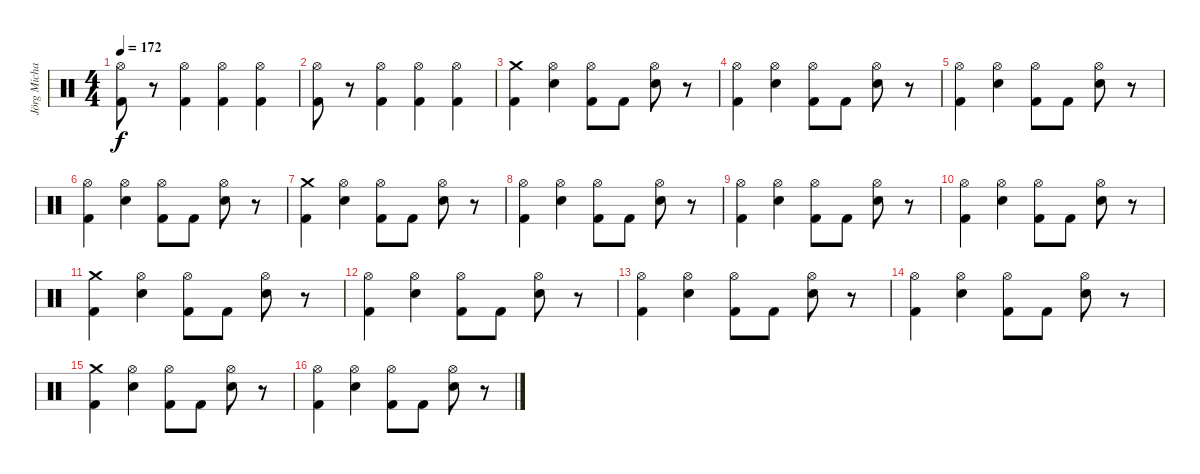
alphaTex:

\track ("Jörg Michael" "Jörg Micha") {instrument percussion}
\staff {score}
\articulation defaults
\ts (4 4)
\tempo 172
\clef neutral
\ks c
("Hi-Hat (open)" "Kick (hit) 2").8{dy f} r.8 ("Kick (hit) 2" "Hi-Hat (open)").4 ("Hi-Hat (open)" "Kick (hit) 2").4 ("Kick (hit) 2" "Hi-Hat (open)").4 |
("Hi-Hat (open)" "Kick (hit) 2").8 r.8 ("Kick (hit) 2" "Hi-Hat (open)").4 ("Hi-Hat (open)" "Kick (hit) 2").4 ("Kick (hit) 2" "Hi-Hat (open)").4 |
("Crash medium (hit)" "Kick (hit) 2").4 ("Hi-Hat (open)" "Electric Snare (hit)").4 ("Hi-Hat (open)" "Kick (hit) 2").8 "Kick (hit) 2".8 ("Hi-Hat (open)" "Electric Snare (hit)").8 r.8 |
("Hi-Hat (open)" "Kick (hit) 2").4 ("Hi-Hat (open)" "Electric Snare (hit)").4 ("Hi-Hat (open)" "Kick (hit) 2").8 "Kick (hit) 2".8 ("Hi-Hat (open)" "Electric Snare (hit)").8 r.8 |
("Hi-Hat (open)" "Kick (hit) 2").4 ("Hi-Hat (open)" "Electric Snare (hit)").4 ("Hi-Hat (open)" "Kick (hit) 2").8 "Kick (hit) 2".8 ("Hi-Hat (open)" "Electric Snare (hit)").8 r.8 |
("Hi-Hat (open)" "Kick (hit) 2").4 ("Hi-Hat (open)" "Electric Snare (hit)").4 ("Hi-Hat (open)" "Kick (hit) 2").8 "Kick (hit) 2".8 ("Hi-Hat (open)" "Electric Snare (hit)").8 r.8 |
("Crash medium (hit)" "Kick (hit) 2").4 ("Hi-Hat (open)" "Electric Snare (hit)").4 ("Hi-Hat (open)" "Kick (hit) 2").8 "Kick (hit) 2".8 ("Hi-Hat (open)" "Electric Snare (hit)").8 r.8 |
("Hi-Hat (open)" "Kick (hit) 2").4 ("Hi-Hat (open)" "Electric Snare (hit)").4 ("Hi-Hat (open)" "Kick (hit) 2").8 "Kick (hit) 2".8 ("Hi-Hat (open)" "Electric Snare (hit)").8 r.8 |
("Hi-Hat (open)" "Kick (hit) 2").4 ("Hi-Hat (open)" "Electric Snare (hit)").4 ("Hi-Hat (open)" "Kick (hit) 2").8 "Kick (hit) 2".8 ("Hi-Hat (open)" "Electric Snare (hit)").8 r.8 |
("Hi-Hat (open)" "Kick (hit) 2").4 ("Hi-Hat (open)" "Electric Snare (hit)").4 ("Hi-Hat (open)" "Kick (hit) 2").8 "Kick (hit) 2".8 ("Hi-Hat (open)" "Electric Snare (hit)").8 r.8 |
("Crash medium (hit)" "Kick (hit) 2").4 ("Hi-Hat (open)" "Electric Snare (hit)").4 ("Hi-Hat (open)" "Kick (hit) 2").8 "Kick (hit) 2".8 ("Hi-Hat (open)" "Electric Snare (hit)").8 r.8 |
("Hi-Hat (open)" "Kick (hit) 2").4 ("Hi-Hat (open)" "Electric Snare (hit)").4 ("Hi-Hat (open)" "Kick (hit) 2").8 "Kick (hit) 2".8 ("Hi-Hat (open)" "Electric Snare (hit)").8 r.8 |
("Hi-Hat (open)" "Kick (hit) 2").4 ("Hi-Hat (open)" "Electric Snare (hit)").4 ("Hi-Hat (open)" "Kick (hit) 2").8 "Kick (hit) 2".8 ("Hi-Hat (open)" "Electric Snare (hit)").8 r.8 |
("Hi-Hat (open)" "Kick (hit) 2").4 ("Hi-Hat (open)" "Electric Snare (hit)").4 ("Hi-Hat (open)" "Kick (hit) 2").8 "Kick (hit) 2".8 ("Hi-Hat (open)" "Electric Snare (hit)").8 r.8 |
("Crash medium (hit)" "Kick (hit) 2").4 ("Hi-Hat (open)" "Electric Snare (hit)").4 ("Hi-Hat (open)" "Kick (hit) 2").8 "Kick (hit) 2".8 ("Hi-Hat (open)" "Electric Snare (hit)").8 r.8 |
("Hi-Hat (open)" "Kick (hit) 2").4 ("Hi-Hat (open)" "Electric Snare (hit)").4 ("Hi-Hat (open)" "Kick (hit) 2").8 "Kick (hit) 2".8 ("Hi-Hat (open)" "Electric Snare (hit)").8 r.8
